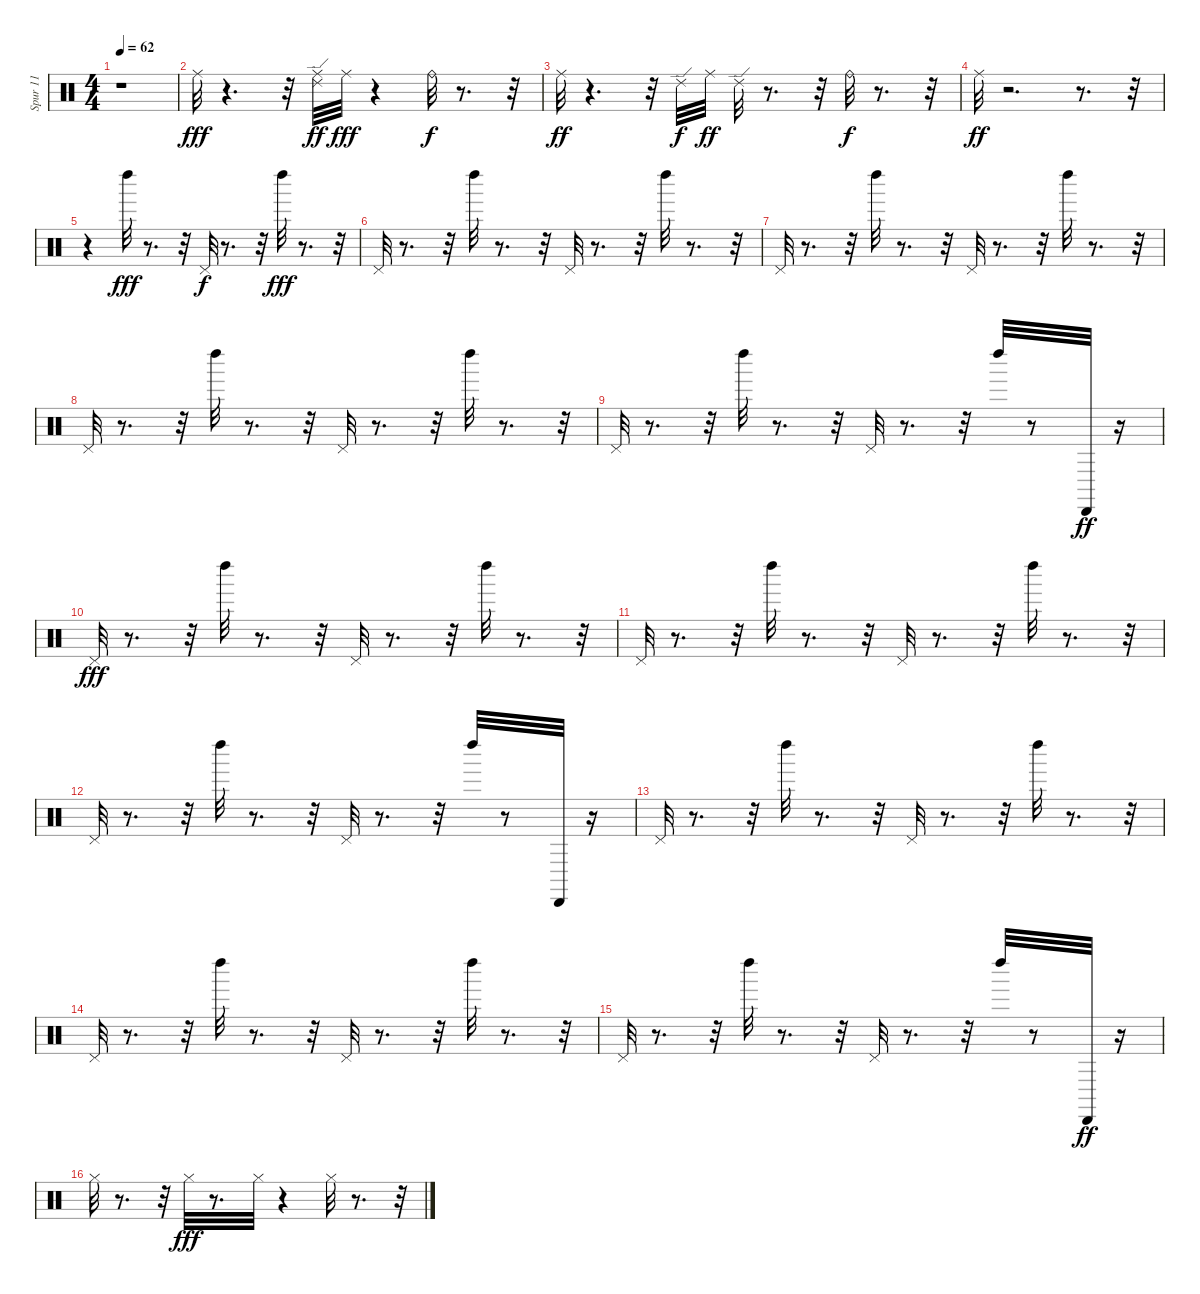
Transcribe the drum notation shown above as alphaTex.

\track ("Spur 11" "Spur 11") {instrument percussion}
\staff {score}
\articulation defaults
\ts (4 4)
\tempo 62
\clef neutral
\ks c
r.1{dy fff} |
"Ride (middle)".32 r.4{d} r.32 ("Ride (middle)" "Ride (edge) 2").32{dy ff} "Ride (middle)".32{dy fff} r.4 "Ride (bell)".32{dy f} r.8{d} r.32 |
"Ride (middle)".32{dy ff} r.4{d} r.32 "Ride (edge) 2".32{dy f} "Ride (middle)".32{dy ff} "Ride (edge) 2".32 r.8{d} r.32 "Ride (bell)".32{dy f} r.8{d} r.32 |
"Ride (middle)".32{dy ff} r.2{d} r.8{d} r.32 |
r.4 "Left Maraca (hit)".32{dy fff} r.8{d} r.32 "Pedal Hi-Hat (hit)".32{dy f} r.8{d} r.32 "Left Maraca (hit)".32{dy fff} r.8{d} r.32 |
"Pedal Hi-Hat (hit)".32 r.8{d} r.32 "Left Maraca (hit)".32 r.8{d} r.32 "Pedal Hi-Hat (hit)".32 r.8{d} r.32 "Left Maraca (hit)".32 r.8{d} r.32 |
"Pedal Hi-Hat (hit)".32 r.8{d} r.32 "Left Maraca (hit)".32 r.8{d} r.32 "Pedal Hi-Hat (hit)".32 r.8{d} r.32 "Left Maraca (hit)".32 r.8{d} r.32 |
"Pedal Hi-Hat (hit)".32 r.8{d} r.32 "Left Maraca (hit)".32 r.8{d} r.32 "Pedal Hi-Hat (hit)".32 r.8{d} r.32 "Left Maraca (hit)".32 r.8{d} r.32 |
"Pedal Hi-Hat (hit)".32 r.8{d} r.32 "Left Maraca (hit)".32 r.8{d} r.32 "Pedal Hi-Hat (hit)".32 r.8{d} r.32 "Left Maraca (hit)".32 r.8 "Cabasa (hit)".32{dy ff} r.16 |
"Pedal Hi-Hat (hit)".32{dy fff} r.8{d} r.32 "Left Maraca (hit)".32 r.8{d} r.32 "Pedal Hi-Hat (hit)".32 r.8{d} r.32 "Left Maraca (hit)".32 r.8{d} r.32 |
"Pedal Hi-Hat (hit)".32 r.8{d} r.32 "Left Maraca (hit)".32 r.8{d} r.32 "Pedal Hi-Hat (hit)".32 r.8{d} r.32 "Left Maraca (hit)".32 r.8{d} r.32 |
"Pedal Hi-Hat (hit)".32 r.8{d} r.32 "Left Maraca (hit)".32 r.8{d} r.32 "Pedal Hi-Hat (hit)".32 r.8{d} r.32 "Left Maraca (hit)".32 r.8 "Cabasa (hit)".32 r.16 |
"Pedal Hi-Hat (hit)".32 r.8{d} r.32 "Left Maraca (hit)".32 r.8{d} r.32 "Pedal Hi-Hat (hit)".32 r.8{d} r.32 "Left Maraca (hit)".32 r.8{d} r.32 |
"Pedal Hi-Hat (hit)".32 r.8{d} r.32 "Left Maraca (hit)".32 r.8{d} r.32 "Pedal Hi-Hat (hit)".32 r.8{d} r.32 "Left Maraca (hit)".32 r.8{d} r.32 |
"Pedal Hi-Hat (hit)".32 r.8{d} r.32 "Left Maraca (hit)".32 r.8{d} r.32 "Pedal Hi-Hat (hit)".32 r.8{d} r.32 "Left Maraca (hit)".32 r.8 "Cabasa (hit)".32{dy ff} r.16 |
"Hi-Hat (closed)".32 r.8{d} r.32 "Hi-Hat (closed)".32{dy fff} r.8{d} "Hi-Hat (closed)".32 r.4 "Hi-Hat (closed)".32 r.8{d} r.32
